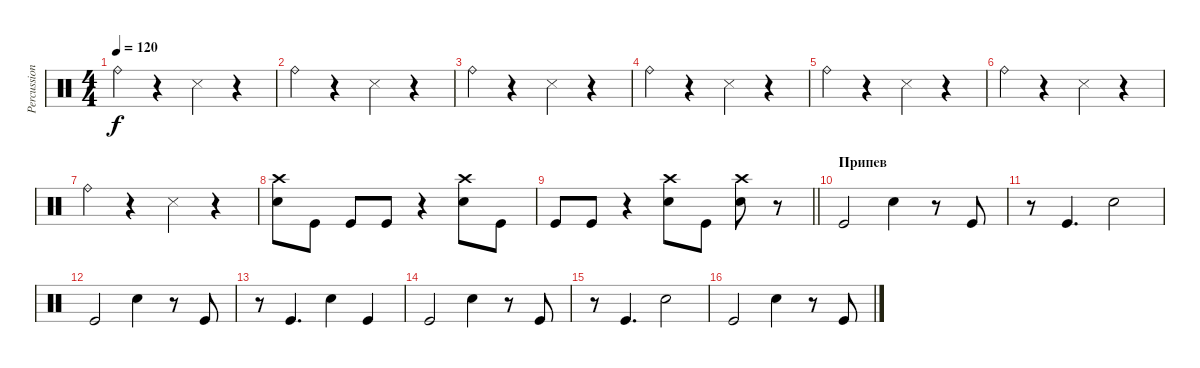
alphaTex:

\track ("Percussion" "Percussion") {instrument percussion}
\staff {score}
\articulation defaults
\ts (4 4)
\tempo 120
\clef neutral
\ks c "Ride (bell)".4{dy f}
r.4 "Snare (side stick) 3".4 r.4 |
"Ride (bell)".4 r.4 "Snare (side stick) 3".4 r.4 |
"Ride (bell)".4 r.4 "Snare (side stick) 3".4 r.4 |
"Ride (bell)".4 r.4 "Snare (side stick) 3".4 r.4 |
"Ride (bell)".4 r.4 "Snare (side stick) 3".4 r.4 |
"Ride (bell)".4 r.4 "Snare (side stick) 3".4 r.4 |
"Ride (bell)".4 r.4 "Snare (side stick) 3".4 r.4 |
("Snare (hit) 2" "Crash high (hit)").8 "Kick (hit)".8 "Kick (hit)".8 "Kick (hit)".8 r.4 ("Snare (hit) 2" "Crash high (hit)").8 "Kick (hit)".8 |
\barLineRight lightlight "Kick (hit)".8 "Kick (hit)".8
r.4 ("Snare (hit) 2" "Crash high (hit)").8 "Kick (hit)".8 ("Snare (hit) 2" "Crash high (hit)").8 r.8 |
\section ("" "Припев")
"Kick (hit)".2 "Snare (hit) 2".4 r.8 "Kick (hit)".8 |
r.8 "Kick (hit)".4{d} "Snare (hit) 2".2 |
"Kick (hit)".2 "Snare (hit) 2".4 r.8 "Kick (hit)".8 |
r.8 "Kick (hit)".4{d} "Snare (hit) 2".4 "Kick (hit)".4 |
"Kick (hit)".2 "Snare (hit) 2".4 r.8 "Kick (hit)".8 |
r.8 "Kick (hit)".4{d} "Snare (hit) 2".2 |
"Kick (hit)".2 "Snare (hit) 2".4 r.8 "Kick (hit)".8
